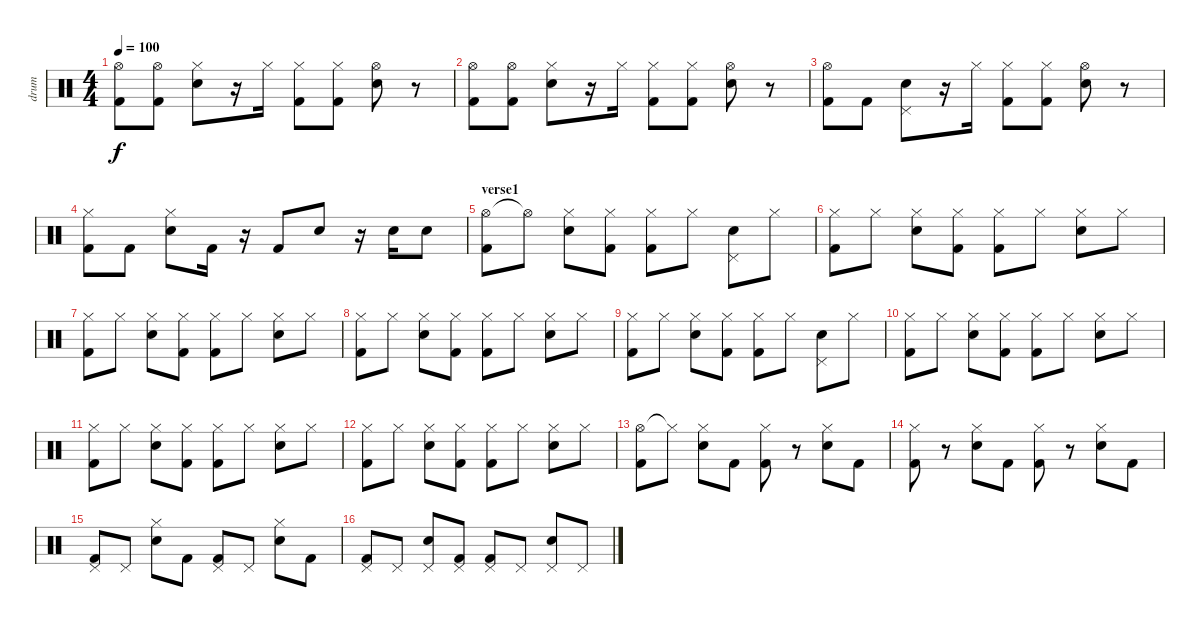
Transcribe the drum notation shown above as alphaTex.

\track ("drum" "drum") {instrument percussion}
\staff {score}
\articulation defaults
\ts (4 4)
\tempo 100
\clef neutral
\ks c
("Hi-Hat (open)" "Kick (hit) 2").8{dy f} ("Hi-Hat (open)" "Kick (hit) 2").8 ("Hi-Hat (closed)" "Electric Snare (hit)").8 r.16 "Hi-Hat (closed)".16 ("Hi-Hat (closed)" "Kick (hit) 2").8 ("Hi-Hat (closed)" "Kick (hit) 2").8 ("Hi-Hat (open)" "Electric Snare (hit)").8 r.8 |
("Hi-Hat (open)" "Kick (hit) 2").8 ("Hi-Hat (open)" "Kick (hit) 2").8 ("Hi-Hat (closed)" "Electric Snare (hit)").8 r.16 "Hi-Hat (closed)".16 ("Hi-Hat (closed)" "Kick (hit) 2").8 ("Hi-Hat (closed)" "Kick (hit) 2").8 ("Hi-Hat (open)" "Electric Snare (hit)").8 r.8 |
("Hi-Hat (open)" "Kick (hit) 2").8 "Kick (hit) 2".8 ("Pedal Hi-Hat (hit)" "Electric Snare (hit)").8 r.16 "Hi-Hat (closed)".16 ("Hi-Hat (closed)" "Kick (hit) 2").8 ("Hi-Hat (closed)" "Kick (hit) 2").8 ("Hi-Hat (open)" "Electric Snare (hit)").8 r.8 |
("Hi-Hat (closed)" "Kick (hit) 2").8 "Kick (hit) 2".8 ("Hi-Hat (closed)" "Electric Snare (hit)").8 "Kick (hit) 2".16 r.16 "Kick (hit) 2".8 "Electric Snare (hit)".8 r.16 "Electric Snare (hit)".16 "Electric Snare (hit)".8 |
\section ("" "verse1")
("Hi-Hat (open)" "Kick (hit) 2").8 "Hi-Hat (open)"{t}.8 ("Hi-Hat (closed)" "Electric Snare (hit)").8 ("Hi-Hat (closed)" "Kick (hit) 2").8 ("Hi-Hat (closed)" "Kick (hit) 2").8 "Hi-Hat (closed)".8 ("Pedal Hi-Hat (hit)" "Electric Snare (hit)").8 "Hi-Hat (closed)".8 |
("Hi-Hat (closed)" "Kick (hit) 2").8 "Hi-Hat (closed)".8 ("Hi-Hat (closed)" "Electric Snare (hit)").8 ("Hi-Hat (closed)" "Kick (hit) 2").8 ("Hi-Hat (closed)" "Kick (hit) 2").8 "Hi-Hat (closed)".8 ("Hi-Hat (closed)" "Electric Snare (hit)").8 "Hi-Hat (closed)".8 |
("Hi-Hat (closed)" "Kick (hit) 2").8 "Hi-Hat (closed)".8 ("Hi-Hat (closed)" "Electric Snare (hit)").8 ("Hi-Hat (closed)" "Kick (hit) 2").8 ("Hi-Hat (closed)" "Kick (hit) 2").8 "Hi-Hat (closed)".8 ("Hi-Hat (closed)" "Electric Snare (hit)").8 "Hi-Hat (closed)".8 |
("Hi-Hat (closed)" "Kick (hit) 2").8 "Hi-Hat (closed)".8 ("Hi-Hat (closed)" "Electric Snare (hit)").8 ("Hi-Hat (closed)" "Kick (hit) 2").8 ("Hi-Hat (closed)" "Kick (hit) 2").8 "Hi-Hat (closed)".8 ("Hi-Hat (closed)" "Electric Snare (hit)").8 "Hi-Hat (closed)".8 |
("Hi-Hat (closed)" "Kick (hit) 2").8 "Hi-Hat (closed)".8 ("Hi-Hat (closed)" "Electric Snare (hit)").8 ("Hi-Hat (closed)" "Kick (hit) 2").8 ("Hi-Hat (closed)" "Kick (hit) 2").8 "Hi-Hat (closed)".8 ("Pedal Hi-Hat (hit)" "Electric Snare (hit)").8 "Hi-Hat (closed)".8 |
("Hi-Hat (closed)" "Kick (hit) 2").8 "Hi-Hat (closed)".8 ("Hi-Hat (closed)" "Electric Snare (hit)").8 ("Hi-Hat (closed)" "Kick (hit) 2").8 ("Hi-Hat (closed)" "Kick (hit) 2").8 "Hi-Hat (closed)".8 ("Hi-Hat (closed)" "Electric Snare (hit)").8 "Hi-Hat (closed)".8 |
("Hi-Hat (closed)" "Kick (hit) 2").8 "Hi-Hat (closed)".8 ("Hi-Hat (closed)" "Electric Snare (hit)").8 ("Hi-Hat (closed)" "Kick (hit) 2").8 ("Hi-Hat (closed)" "Kick (hit) 2").8 "Hi-Hat (closed)".8 ("Hi-Hat (closed)" "Electric Snare (hit)").8 "Hi-Hat (closed)".8 |
("Hi-Hat (closed)" "Kick (hit) 2").8 "Hi-Hat (closed)".8 ("Hi-Hat (closed)" "Electric Snare (hit)").8 ("Hi-Hat (closed)" "Kick (hit) 2").8 ("Hi-Hat (closed)" "Kick (hit) 2").8 "Hi-Hat (closed)".8 ("Hi-Hat (closed)" "Electric Snare (hit)").8 "Hi-Hat (closed)".8 |
("Hi-Hat (open)" "Kick (hit) 2").8 "Hi-Hat (closed)"{t}.8 ("Hi-Hat (closed)" "Electric Snare (hit)").8 "Kick (hit) 2".8 ("Hi-Hat (closed)" "Kick (hit) 2").8 r.8 ("Hi-Hat (closed)" "Electric Snare (hit)").8 "Kick (hit) 2".8 |
("Hi-Hat (closed)" "Kick (hit) 2").8 r.8 ("Hi-Hat (closed)" "Electric Snare (hit)").8 "Kick (hit) 2".8 ("Hi-Hat (closed)" "Kick (hit) 2").8 r.8 ("Hi-Hat (closed)" "Electric Snare (hit)").8 "Kick (hit) 2".8 |
("Pedal Hi-Hat (hit)" "Kick (hit) 2").8 "Pedal Hi-Hat (hit)".8 ("Hi-Hat (closed)" "Electric Snare (hit)").8 "Kick (hit) 2".8 ("Pedal Hi-Hat (hit)" "Kick (hit) 2").8 "Pedal Hi-Hat (hit)".8 ("Hi-Hat (closed)" "Electric Snare (hit)").8 "Kick (hit) 2".8 |
("Pedal Hi-Hat (hit)" "Kick (hit) 2").8 "Pedal Hi-Hat (hit)".8 ("Pedal Hi-Hat (hit)" "Electric Snare (hit)").8 ("Pedal Hi-Hat (hit)" "Kick (hit) 2").8 ("Pedal Hi-Hat (hit)" "Kick (hit) 2").8 "Pedal Hi-Hat (hit)".8 ("Pedal Hi-Hat (hit)" "Electric Snare (hit)").8 "Pedal Hi-Hat (hit)".8
